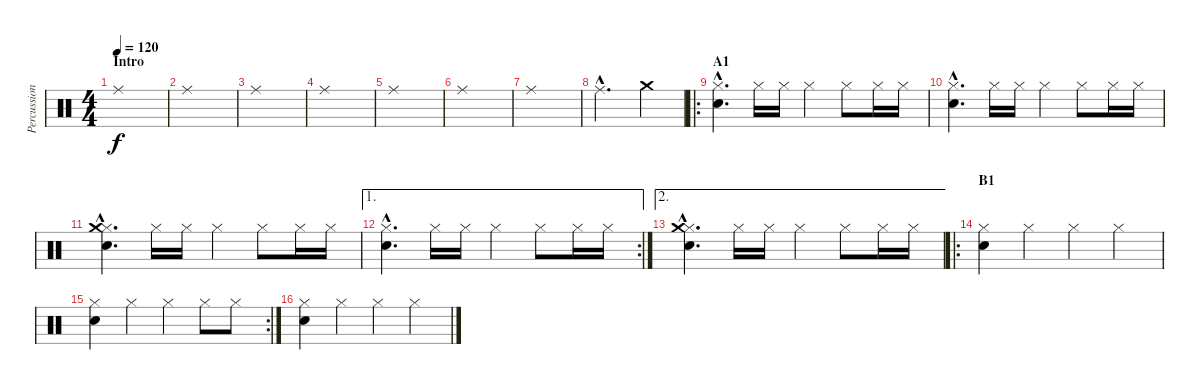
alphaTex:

\track ("Percussions" "Percussion") {instrument percussion}
\staff {score}
\articulation defaults
\ts (4 4)
\section ("" "Intro")
\tempo 120
\clef neutral
\ks c "Ride (middle)".1{dy f volume 16}
|
"Ride (middle)".1 |
"Ride (middle)".1 |
"Ride (middle)".1 |
"Ride (middle)".1 |
"Ride (middle)".1 |
"Ride (middle)".1 |
"Ride (middle)"{hac}.2{d} "Crash medium (hit)".4 |
\ro
\section ("" "A1")
("Hi-Hat (closed)"{hac} "Electric Snare (hit)"{hac}).4{d volume 10} "Hi-Hat (closed)".16 "Hi-Hat (closed)".16 "Hi-Hat (closed)".4 "Hi-Hat (closed)".8 "Hi-Hat (closed)".16 "Hi-Hat (closed)".16 |
("Hi-Hat (closed)"{hac} "Electric Snare (hit)"{hac}).4{d} "Hi-Hat (closed)".16 "Hi-Hat (closed)".16 "Hi-Hat (closed)".4 "Hi-Hat (closed)".8 "Hi-Hat (closed)".16 "Hi-Hat (closed)".16 |
("Hi-Hat (closed)"{hac} "Electric Snare (hit)"{hac} "Crash medium (hit)"{hac}).4{d} "Hi-Hat (closed)".16 "Hi-Hat (closed)".16 "Hi-Hat (closed)".4 "Hi-Hat (closed)".8 "Hi-Hat (closed)".16 "Hi-Hat (closed)".16 |
\ae 1
\rc 2
("Hi-Hat (closed)"{hac} "Electric Snare (hit)"{hac}).4{d} "Hi-Hat (closed)".16 "Hi-Hat (closed)".16 "Hi-Hat (closed)".4 "Hi-Hat (closed)".8 "Hi-Hat (closed)".16 "Hi-Hat (closed)".16 |
\ae 2
("Hi-Hat (closed)"{hac} "Electric Snare (hit)"{hac} "Crash medium (hit)"{hac}).4{d} "Hi-Hat (closed)".16 "Hi-Hat (closed)".16 "Hi-Hat (closed)".4 "Hi-Hat (closed)".8 "Hi-Hat (closed)".16 "Hi-Hat (closed)".16 |
\ro
\section ("" "B1")
("Hi-Hat (closed)" "Electric Snare (hit)").4 "Hi-Hat (closed)".4 "Hi-Hat (closed)".4 "Hi-Hat (closed)".4 |
\rc 2
("Hi-Hat (closed)" "Electric Snare (hit)").4 "Hi-Hat (closed)".4 "Hi-Hat (closed)".4 "Hi-Hat (closed)".8 "Hi-Hat (closed)".8 |
("Hi-Hat (closed)" "Electric Snare (hit)").4 "Hi-Hat (closed)".4 "Hi-Hat (closed)".4 "Hi-Hat (closed)".4
